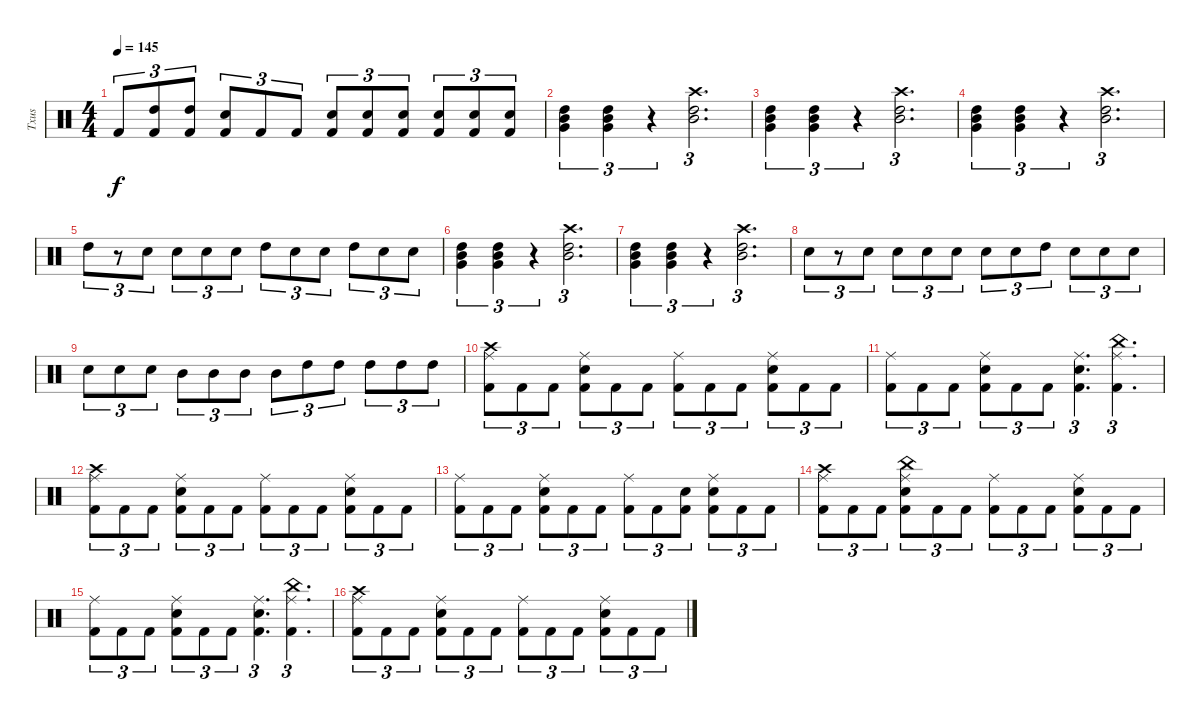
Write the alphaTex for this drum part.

\track ("Txus" "Txus") {instrument percussion}
\staff {score}
\articulation defaults
\ts (4 4)
\tempo 145
\clef neutral
\ks c "Kick (hit) 2".8{tu (3 2) dy f}
("Kick (hit) 2" "High Tom (hit)").8{tu (3 2)} ("Kick (hit) 2" "High Tom (hit)").8{tu (3 2)} ("Kick (hit) 2" "Electric Snare (hit)").8{tu (3 2)} "Kick (hit) 2".8{tu (3 2)} "Kick (hit) 2".8{tu (3 2)} ("Kick (hit) 2" "Electric Snare (hit)").8{tu (3 2)} ("Kick (hit) 2" "Electric Snare (hit)").8{tu (3 2)} ("Kick (hit) 2" "Electric Snare (hit)").8{tu (3 2)} ("Kick (hit) 2" "Electric Snare (hit)").8{tu (3 2)} ("Kick (hit) 2" "Electric Snare (hit)").8{tu (3 2)} ("Kick (hit) 2" "Electric Snare (hit)").8{tu (3 2)} |
("High Tom (hit)" "Mid Tom (hit)" "Very Low Tom (hit)").4{tu (3 2)} ("High Tom (hit)" "Mid Tom (hit)" "Very Low Tom (hit)").4{tu (3 2)} r.4{tu (3 2)} ("High Tom (hit)" "Mid Tom (hit)" "Crash high (hit)").2{d tu (3 2)} |
("High Tom (hit)" "Mid Tom (hit)" "Very Low Tom (hit)").4{tu (3 2)} ("High Tom (hit)" "Mid Tom (hit)" "Very Low Tom (hit)").4{tu (3 2)} r.4{tu (3 2)} ("High Tom (hit)" "Mid Tom (hit)" "Crash high (hit)").2{d tu (3 2)} |
("High Tom (hit)" "Mid Tom (hit)" "Very Low Tom (hit)").4{tu (3 2)} ("High Tom (hit)" "Mid Tom (hit)" "Very Low Tom (hit)").4{tu (3 2)} r.4{tu (3 2)} ("High Tom (hit)" "Mid Tom (hit)" "Crash high (hit)").2{d tu (3 2)} |
"High Tom (hit)".8{tu (3 2)} r.8{tu (3 2)} "Electric Snare (hit)".8{tu (3 2)} "Electric Snare (hit)".8{tu (3 2)} "Electric Snare (hit)".8{tu (3 2)} "Electric Snare (hit)".8{tu (3 2)} "High Tom (hit)".8{tu (3 2)} "Electric Snare (hit)".8{tu (3 2)} "Electric Snare (hit)".8{tu (3 2)} "High Tom (hit)".8{tu (3 2)} "Electric Snare (hit)".8{tu (3 2)} "Electric Snare (hit)".8{tu (3 2)} |
("High Tom (hit)" "Mid Tom (hit)" "Very Low Tom (hit)").4{tu (3 2)} ("High Tom (hit)" "Mid Tom (hit)" "Very Low Tom (hit)").4{tu (3 2)} r.4{tu (3 2)} ("High Tom (hit)" "Mid Tom (hit)" "Crash high (hit)").2{d tu (3 2)} |
("High Tom (hit)" "Mid Tom (hit)" "Very Low Tom (hit)").4{tu (3 2)} ("High Tom (hit)" "Mid Tom (hit)" "Very Low Tom (hit)").4{tu (3 2)} r.4{tu (3 2)} ("High Tom (hit)" "Mid Tom (hit)" "Crash high (hit)").2{d tu (3 2)} |
"Electric Snare (hit)".8{tu (3 2)} r.8{tu (3 2)} "Electric Snare (hit)".8{tu (3 2)} "Electric Snare (hit)".8{tu (3 2)} "Electric Snare (hit)".8{tu (3 2)} "Electric Snare (hit)".8{tu (3 2)} "Electric Snare (hit)".8{tu (3 2)} "Electric Snare (hit)".8{tu (3 2)} "High Tom (hit)".8{tu (3 2)} "Electric Snare (hit)".8{tu (3 2)} "Electric Snare (hit)".8{tu (3 2)} "Electric Snare (hit)".8{tu (3 2)} |
"Electric Snare (hit)".8{tu (3 2)} "Electric Snare (hit)".8{tu (3 2)} "Electric Snare (hit)".8{tu (3 2)} "Mid Tom (hit)".8{tu (3 2)} "Mid Tom (hit)".8{tu (3 2)} "Mid Tom (hit)".8{tu (3 2)} "Mid Tom (hit)".8{tu (3 2)} "High Tom (hit)".8{tu (3 2)} "High Tom (hit)".8{tu (3 2)} "High Tom (hit)".8{tu (3 2)} "High Tom (hit)".8{tu (3 2)} "High Tom (hit)".8{tu (3 2)} |
("Kick (hit) 2" "Ride (middle)" "Crash high (hit)").8{tu (3 2)} "Kick (hit) 2".8{tu (3 2)} "Kick (hit) 2".8{tu (3 2)} ("Kick (hit) 2" "Ride (middle)" "Electric Snare (hit)").8{tu (3 2)} "Kick (hit) 2".8{tu (3 2)} "Kick (hit) 2".8{tu (3 2)} ("Kick (hit) 2" "Ride (middle)").8{tu (3 2)} "Kick (hit) 2".8{tu (3 2)} "Kick (hit) 2".8{tu (3 2)} ("Kick (hit) 2" "Ride (middle)" "Electric Snare (hit)").8{tu (3 2)} "Kick (hit) 2".8{tu (3 2)} "Kick (hit) 2".8{tu (3 2)} |
("Kick (hit) 2" "Ride (middle)").8{tu (3 2)} "Kick (hit) 2".8{tu (3 2)} "Kick (hit) 2".8{tu (3 2)} ("Kick (hit) 2" "Ride (middle)" "Electric Snare (hit)").8{tu (3 2)} "Kick (hit) 2".8{tu (3 2)} "Kick (hit) 2".8{tu (3 2)} ("Kick (hit) 2" "Ride (middle)" "Electric Snare (hit)").4{d tu (3 2)} ("Kick (hit) 2" "Ride (middle)" "China (hit)").4{d tu (3 2)} |
("Kick (hit) 2" "Ride (middle)" "Crash high (hit)").8{tu (3 2)} "Kick (hit) 2".8{tu (3 2)} "Kick (hit) 2".8{tu (3 2)} ("Kick (hit) 2" "Ride (middle)" "Electric Snare (hit)").8{tu (3 2)} "Kick (hit) 2".8{tu (3 2)} "Kick (hit) 2".8{tu (3 2)} ("Kick (hit) 2" "Ride (middle)").8{tu (3 2)} "Kick (hit) 2".8{tu (3 2)} "Kick (hit) 2".8{tu (3 2)} ("Kick (hit) 2" "Ride (middle)" "Electric Snare (hit)").8{tu (3 2)} "Kick (hit) 2".8{tu (3 2)} "Kick (hit) 2".8{tu (3 2)} |
("Kick (hit) 2" "Ride (middle)").8{tu (3 2)} "Kick (hit) 2".8{tu (3 2)} "Kick (hit) 2".8{tu (3 2)} ("Kick (hit) 2" "Ride (middle)" "Electric Snare (hit)").8{tu (3 2)} "Kick (hit) 2".8{tu (3 2)} "Kick (hit) 2".8{tu (3 2)} ("Kick (hit) 2" "Ride (middle)").8{tu (3 2)} "Kick (hit) 2".8{tu (3 2)} ("Kick (hit) 2" "Electric Snare (hit)").8{tu (3 2)} ("Kick (hit) 2" "Ride (middle)" "Electric Snare (hit)").8{tu (3 2)} "Kick (hit) 2".8{tu (3 2)} "Kick (hit) 2".8{tu (3 2)} |
("Kick (hit) 2" "Ride (middle)" "Crash high (hit)").8{tu (3 2)} "Kick (hit) 2".8{tu (3 2)} "Kick (hit) 2".8{tu (3 2)} ("Kick (hit) 2" "Ride (middle)" "Electric Snare (hit)" "China (hit)").8{tu (3 2)} "Kick (hit) 2".8{tu (3 2)} "Kick (hit) 2".8{tu (3 2)} ("Kick (hit) 2" "Ride (middle)").8{tu (3 2)} "Kick (hit) 2".8{tu (3 2)} "Kick (hit) 2".8{tu (3 2)} ("Kick (hit) 2" "Ride (middle)" "Electric Snare (hit)").8{tu (3 2)} "Kick (hit) 2".8{tu (3 2)} "Kick (hit) 2".8{tu (3 2)} |
("Kick (hit) 2" "Ride (middle)").8{tu (3 2)} "Kick (hit) 2".8{tu (3 2)} "Kick (hit) 2".8{tu (3 2)} ("Kick (hit) 2" "Ride (middle)" "Electric Snare (hit)").8{tu (3 2)} "Kick (hit) 2".8{tu (3 2)} "Kick (hit) 2".8{tu (3 2)} ("Kick (hit) 2" "Ride (middle)" "Electric Snare (hit)").4{d tu (3 2)} ("Kick (hit) 2" "Ride (middle)" "China (hit)").4{d tu (3 2)} |
("Kick (hit) 2" "Ride (middle)" "Crash high (hit)").8{tu (3 2)} "Kick (hit) 2".8{tu (3 2)} "Kick (hit) 2".8{tu (3 2)} ("Kick (hit) 2" "Ride (middle)" "Electric Snare (hit)").8{tu (3 2)} "Kick (hit) 2".8{tu (3 2)} "Kick (hit) 2".8{tu (3 2)} ("Kick (hit) 2" "Ride (middle)").8{tu (3 2)} "Kick (hit) 2".8{tu (3 2)} "Kick (hit) 2".8{tu (3 2)} ("Kick (hit) 2" "Ride (middle)" "Electric Snare (hit)").8{tu (3 2)} "Kick (hit) 2".8{tu (3 2)} "Kick (hit) 2".8{tu (3 2)}
